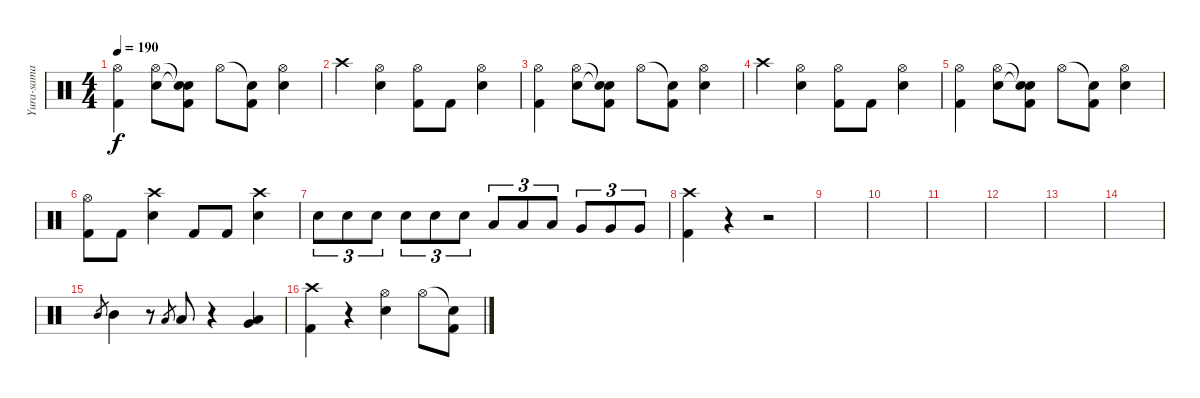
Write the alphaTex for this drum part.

\track ("Yura-sama" "Yura-sama") {instrument percussion}
\staff {score}
\articulation defaults
\ts (4 4)
\tempo 190
\clef neutral
\ks c
("Hi-Hat (open)" "Kick (hit) 2").4{dy f} ("Hi-Hat (open)" "Electric Snare (hit)").8 ("Snare (hit)"{t} "Snare (hit)"{t} "Kick (hit) 2").8 "Hi-Hat (open)".8 ("Snare (hit)"{t} "Kick (hit) 2").8 ("Hi-Hat (open)" "Electric Snare (hit)").4 |
"Crash high (hit)".4 ("Hi-Hat (open)" "Electric Snare (hit)").4 ("Hi-Hat (open)" "Kick (hit) 2").8 "Kick (hit) 2".8 ("Hi-Hat (open)" "Electric Snare (hit)").4 |
("Hi-Hat (open)" "Kick (hit) 2").4 ("Hi-Hat (open)" "Electric Snare (hit)").8 ("Snare (hit)"{t} "Snare (hit)"{t} "Kick (hit) 2").8 "Hi-Hat (open)".8 ("Snare (hit)"{t} "Kick (hit) 2").8 ("Hi-Hat (open)" "Electric Snare (hit)").4 |
"Crash high (hit)".4 ("Hi-Hat (open)" "Electric Snare (hit)").4 ("Hi-Hat (open)" "Kick (hit) 2").8 "Kick (hit) 2".8 ("Hi-Hat (open)" "Electric Snare (hit)").4 |
("Hi-Hat (open)" "Kick (hit) 2").4 ("Hi-Hat (open)" "Electric Snare (hit)").8 ("Snare (hit)"{t} "Snare (hit)"{t} "Kick (hit) 2").8 "Hi-Hat (open)".8 ("Snare (hit)"{t} "Kick (hit) 2").8 ("Hi-Hat (open)" "Electric Snare (hit)").4 |
("Hi-Hat (open)" "Kick (hit) 2").8 "Kick (hit) 2".8 ("Crash high (hit)" "Electric Snare (hit)").4 "Kick (hit) 2".8 "Kick (hit) 2".8 ("Crash high (hit)" "Electric Snare (hit)").4 |
"Electric Snare (hit)".8{tu (3 2)} "Electric Snare (hit)".8{tu (3 2)} "Electric Snare (hit)".8{tu (3 2)} "Electric Snare (hit)".8{tu (3 2)} "Electric Snare (hit)".8{tu (3 2)} "Electric Snare (hit)".8{tu (3 2)} "Low Tom (hit)".8{tu (3 2)} "Low Tom (hit)".8{tu (3 2)} "Low Tom (hit)".8{tu (3 2)} "Very Low Tom (hit)".8{tu (3 2)} "Very Low Tom (hit)".8{tu (3 2)} "Very Low Tom (hit)".8{tu (3 2)} |
("Crash high (hit)" "Kick (hit) 2").4 r.4 r.2 |
|
|
|
|
|
|
"Mid Tom (hit)".8{gr} "Mid Tom (hit)".4 r.8 "Low Tom (hit)".8{gr} "Low Tom (hit)".8 r.4 ("Low Tom (hit)" "Very Low Tom (hit)").4 |
("Crash high (hit)" "Kick (hit) 2").4 r.4 ("Hi-Hat (open)" "Electric Snare (hit)").4 "Hi-Hat (open)".8 ("Snare (hit)"{t} "Kick (hit) 2").8
